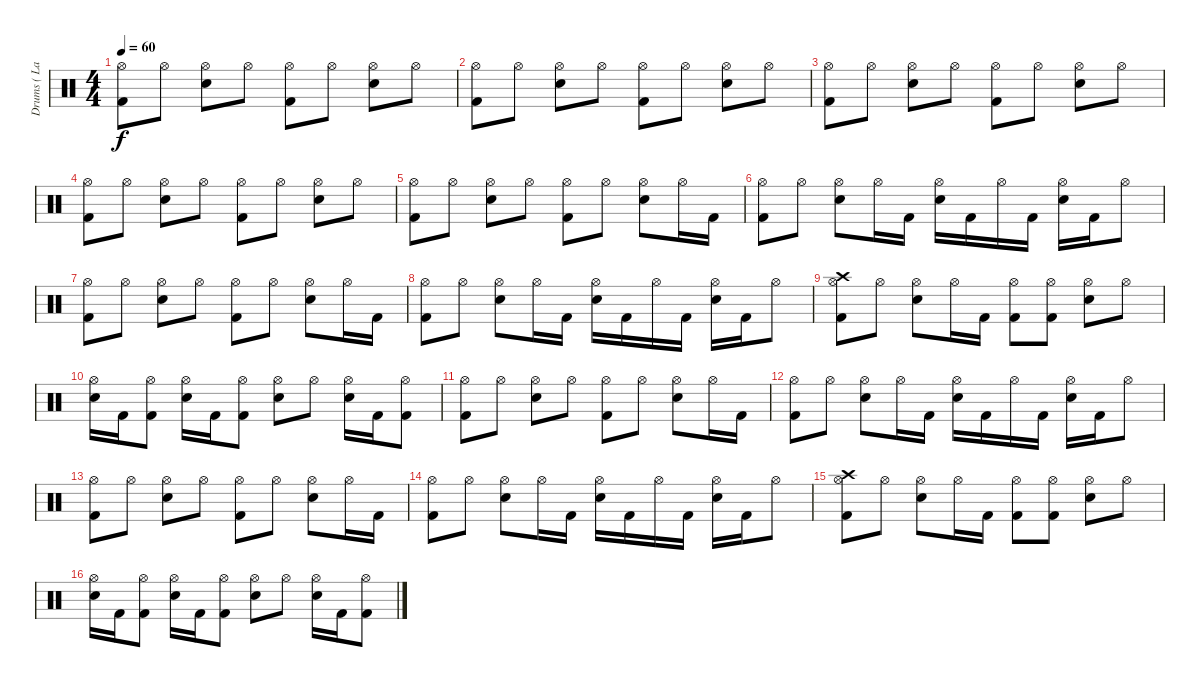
\track ("Drums ( Lars )" "Drums ( La") {instrument percussion}
\staff {score}
\articulation defaults
\ts (4 4)
\tempo 60
\clef neutral
\ks c
("Kick (hit) 2" "Hi-Hat (open)").8{dy f} "Hi-Hat (open)".8 ("Snare (hit) 2" "Hi-Hat (open)").8 "Hi-Hat (open)".8 ("Kick (hit) 2" "Hi-Hat (open)").8 "Hi-Hat (open)".8 ("Snare (hit) 2" "Hi-Hat (open)").8 "Hi-Hat (open)".8 |
("Kick (hit) 2" "Hi-Hat (open)").8 "Hi-Hat (open)".8 ("Snare (hit) 2" "Hi-Hat (open)").8 "Hi-Hat (open)".8 ("Kick (hit) 2" "Hi-Hat (open)").8 "Hi-Hat (open)".8 ("Snare (hit) 2" "Hi-Hat (open)").8 "Hi-Hat (open)".8 |
("Kick (hit) 2" "Hi-Hat (open)").8 "Hi-Hat (open)".8 ("Snare (hit) 2" "Hi-Hat (open)").8 "Hi-Hat (open)".8 ("Kick (hit) 2" "Hi-Hat (open)").8 "Hi-Hat (open)".8 ("Snare (hit) 2" "Hi-Hat (open)").8 "Hi-Hat (open)".8 |
("Kick (hit) 2" "Hi-Hat (open)").8 "Hi-Hat (open)".8 ("Snare (hit) 2" "Hi-Hat (open)").8 "Hi-Hat (open)".8 ("Kick (hit) 2" "Hi-Hat (open)").8 "Hi-Hat (open)".8 ("Snare (hit) 2" "Hi-Hat (open)").8 "Hi-Hat (open)".8 |
("Kick (hit) 2" "Hi-Hat (open)").8 "Hi-Hat (open)".8 ("Snare (hit) 2" "Hi-Hat (open)").8 "Hi-Hat (open)".8 ("Kick (hit) 2" "Hi-Hat (open)").8 "Hi-Hat (open)".8 ("Snare (hit) 2" "Hi-Hat (open)").8 "Hi-Hat (open)".16 "Kick (hit) 2".16 |
("Kick (hit) 2" "Hi-Hat (open)").8 "Hi-Hat (open)".8 ("Snare (hit) 2" "Hi-Hat (open)").8 "Hi-Hat (open)".16 "Kick (hit) 2".16 ("Snare (hit) 2" "Hi-Hat (open)").16 "Kick (hit) 2".16 "Hi-Hat (open)".16 "Kick (hit) 2".16 ("Snare (hit) 2" "Hi-Hat (open)").16 "Kick (hit) 2".16 "Hi-Hat (open)".8 |
("Kick (hit) 2" "Hi-Hat (open)").8 "Hi-Hat (open)".8 ("Snare (hit) 2" "Hi-Hat (open)").8 "Hi-Hat (open)".8 ("Kick (hit) 2" "Hi-Hat (open)").8 "Hi-Hat (open)".8 ("Snare (hit) 2" "Hi-Hat (open)").8 "Hi-Hat (open)".16 "Kick (hit) 2".16 |
("Kick (hit) 2" "Hi-Hat (open)").8 "Hi-Hat (open)".8 ("Snare (hit) 2" "Hi-Hat (open)").8 "Hi-Hat (open)".16 "Kick (hit) 2".16 ("Snare (hit) 2" "Hi-Hat (open)").16 "Kick (hit) 2".16 "Hi-Hat (open)".16 "Kick (hit) 2".16 ("Snare (hit) 2" "Hi-Hat (open)").16 "Kick (hit) 2".16 "Hi-Hat (open)".8 |
("Kick (hit) 2" "Hi-Hat (open)" "Crash high (hit)").8 "Hi-Hat (open)".8 ("Snare (hit) 2" "Hi-Hat (open)").8 "Hi-Hat (open)".16 "Kick (hit) 2".16 ("Kick (hit) 2" "Hi-Hat (open)").8 ("Kick (hit) 2" "Hi-Hat (open)").8 ("Snare (hit) 2" "Hi-Hat (open)").8 "Hi-Hat (open)".8 |
("Snare (hit) 2" "Hi-Hat (open)").16 "Kick (hit) 2".16 ("Kick (hit) 2" "Hi-Hat (open)").8 ("Snare (hit) 2" "Hi-Hat (open)").16 "Kick (hit) 2".16 ("Kick (hit) 2" "Hi-Hat (open)").8 ("Snare (hit) 2" "Hi-Hat (open)").8 "Hi-Hat (open)".8 ("Snare (hit) 2" "Hi-Hat (open)").16 "Kick (hit) 2".16 ("Kick (hit) 2" "Hi-Hat (open)").8 |
("Kick (hit) 2" "Hi-Hat (open)").8 "Hi-Hat (open)".8 ("Snare (hit) 2" "Hi-Hat (open)").8 "Hi-Hat (open)".8 ("Kick (hit) 2" "Hi-Hat (open)").8 "Hi-Hat (open)".8 ("Snare (hit) 2" "Hi-Hat (open)").8 "Hi-Hat (open)".16 "Kick (hit) 2".16 |
("Kick (hit) 2" "Hi-Hat (open)").8 "Hi-Hat (open)".8 ("Snare (hit) 2" "Hi-Hat (open)").8 "Hi-Hat (open)".16 "Kick (hit) 2".16 ("Snare (hit) 2" "Hi-Hat (open)").16 "Kick (hit) 2".16 "Hi-Hat (open)".16 "Kick (hit) 2".16 ("Snare (hit) 2" "Hi-Hat (open)").16 "Kick (hit) 2".16 "Hi-Hat (open)".8 |
("Kick (hit) 2" "Hi-Hat (open)").8 "Hi-Hat (open)".8 ("Snare (hit) 2" "Hi-Hat (open)").8 "Hi-Hat (open)".8 ("Kick (hit) 2" "Hi-Hat (open)").8 "Hi-Hat (open)".8 ("Snare (hit) 2" "Hi-Hat (open)").8 "Hi-Hat (open)".16 "Kick (hit) 2".16 |
("Kick (hit) 2" "Hi-Hat (open)").8 "Hi-Hat (open)".8 ("Snare (hit) 2" "Hi-Hat (open)").8 "Hi-Hat (open)".16 "Kick (hit) 2".16 ("Snare (hit) 2" "Hi-Hat (open)").16 "Kick (hit) 2".16 "Hi-Hat (open)".16 "Kick (hit) 2".16 ("Snare (hit) 2" "Hi-Hat (open)").16 "Kick (hit) 2".16 "Hi-Hat (open)".8 |
("Kick (hit) 2" "Hi-Hat (open)" "Crash high (hit)").8 "Hi-Hat (open)".8 ("Snare (hit) 2" "Hi-Hat (open)").8 "Hi-Hat (open)".16 "Kick (hit) 2".16 ("Kick (hit) 2" "Hi-Hat (open)").8 ("Kick (hit) 2" "Hi-Hat (open)").8 ("Snare (hit) 2" "Hi-Hat (open)").8 "Hi-Hat (open)".8 |
("Snare (hit) 2" "Hi-Hat (open)").16 "Kick (hit) 2".16 ("Kick (hit) 2" "Hi-Hat (open)").8 ("Snare (hit) 2" "Hi-Hat (open)").16 "Kick (hit) 2".16 ("Kick (hit) 2" "Hi-Hat (open)").8 ("Snare (hit) 2" "Hi-Hat (open)").8 "Hi-Hat (open)".8 ("Snare (hit) 2" "Hi-Hat (open)").16 "Kick (hit) 2".16 ("Kick (hit) 2" "Hi-Hat (open)").8
